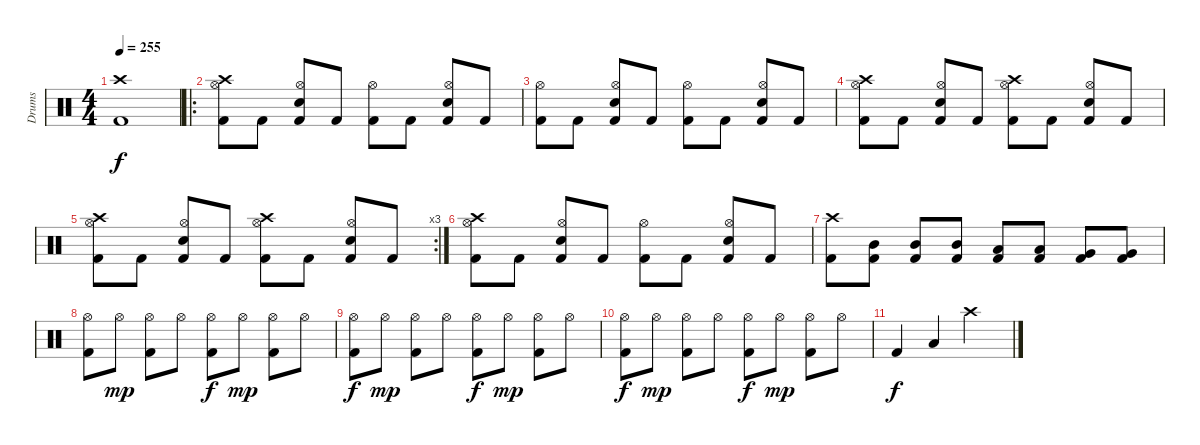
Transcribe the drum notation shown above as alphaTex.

\track ("Drums" "Drums") {instrument percussion}
\staff {score}
\articulation defaults
\ts (4 4)
\tempo 255
\clef neutral
\ks c
("Crash high (hit)" "Kick (hit) 2").1{dy f} |
\ro
("Crash high (hit)" "Hi-Hat (open)" "Kick (hit) 2").8 "Kick (hit) 2".8 ("Hi-Hat (open)" "Electric Snare (hit)" "Kick (hit) 2").8 "Kick (hit) 2".8 ("Hi-Hat (open)" "Kick (hit) 2").8 "Kick (hit) 2".8 ("Hi-Hat (open)" "Electric Snare (hit)" "Kick (hit) 2").8 "Kick (hit) 2".8 |
("Hi-Hat (open)" "Kick (hit) 2").8 "Kick (hit) 2".8 ("Hi-Hat (open)" "Electric Snare (hit)" "Kick (hit) 2").8 "Kick (hit) 2".8 ("Hi-Hat (open)" "Kick (hit) 2").8 "Kick (hit) 2".8 ("Hi-Hat (open)" "Electric Snare (hit)" "Kick (hit) 2").8 "Kick (hit) 2".8 |
("Crash high (hit)" "Hi-Hat (open)" "Kick (hit) 2").8 "Kick (hit) 2".8 ("Hi-Hat (open)" "Electric Snare (hit)" "Kick (hit) 2").8 "Kick (hit) 2".8 ("Crash high (hit)" "Hi-Hat (open)" "Kick (hit) 2").8 "Kick (hit) 2".8 ("Hi-Hat (open)" "Electric Snare (hit)" "Kick (hit) 2").8 "Kick (hit) 2".8 |
\rc 3
("Crash high (hit)" "Hi-Hat (open)" "Kick (hit) 2").8 "Kick (hit) 2".8 ("Hi-Hat (open)" "Electric Snare (hit)" "Kick (hit) 2").8 "Kick (hit) 2".8 ("Crash high (hit)" "Hi-Hat (open)" "Kick (hit) 2").8 "Kick (hit) 2".8 ("Hi-Hat (open)" "Electric Snare (hit)" "Kick (hit) 2").8 "Kick (hit) 2".8 |
("Crash high (hit)" "Hi-Hat (open)" "Kick (hit) 2").8 "Kick (hit) 2".8 ("Hi-Hat (open)" "Electric Snare (hit)" "Kick (hit) 2").8 "Kick (hit) 2".8 ("Hi-Hat (open)" "Kick (hit) 2").8 "Kick (hit) 2".8 ("Hi-Hat (open)" "Electric Snare (hit)" "Kick (hit) 2").8 "Kick (hit) 2".8 |
("Crash high (hit)" "Kick (hit) 2").8 ("Mid Tom (hit)" "Kick (hit) 2").8 ("Mid Tom (hit)" "Kick (hit) 2").8 ("Mid Tom (hit)" "Kick (hit) 2").8 ("Low Tom (hit)" "Kick (hit) 2").8 ("Low Tom (hit)" "Kick (hit) 2").8 ("Very Low Tom (hit)" "Kick (hit) 2").8 ("Very Low Tom (hit)" "Kick (hit) 2").8 |
("Hi-Hat (open)" "Kick (hit) 2").8 "Hi-Hat (open)".8{dy mp} ("Hi-Hat (open)" "Kick (hit) 2").8 "Hi-Hat (open)".8 ("Hi-Hat (open)" "Kick (hit) 2").8{dy f} "Hi-Hat (open)".8{dy mp} ("Hi-Hat (open)" "Kick (hit) 2").8 "Hi-Hat (open)".8 |
("Hi-Hat (open)" "Kick (hit) 2").8{dy f} "Hi-Hat (open)".8{dy mp} ("Hi-Hat (open)" "Kick (hit) 2").8 "Hi-Hat (open)".8 ("Hi-Hat (open)" "Kick (hit) 2").8{dy f} "Hi-Hat (open)".8{dy mp} ("Hi-Hat (open)" "Kick (hit) 2").8 "Hi-Hat (open)".8 |
("Hi-Hat (open)" "Kick (hit) 2").8{dy f} "Hi-Hat (open)".8{dy mp} ("Hi-Hat (open)" "Kick (hit) 2").8 "Hi-Hat (open)".8 ("Hi-Hat (open)" "Kick (hit) 2").8{dy f} "Hi-Hat (open)".8{dy mp} ("Hi-Hat (open)" "Kick (hit) 2").8 "Hi-Hat (open)".8 |
"Kick (hit) 2".4{dy f} "Low Tom (hit)".4 "Crash high (hit)".2
